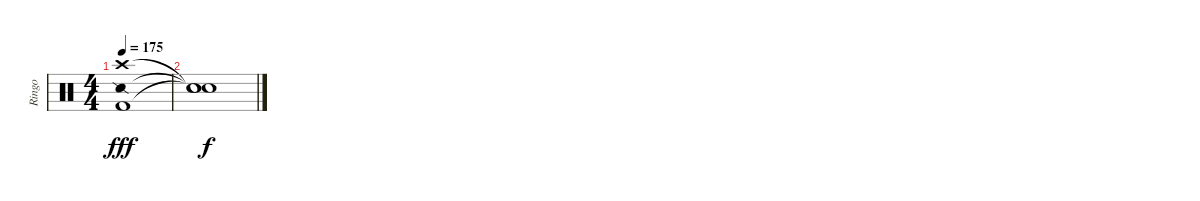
\track ("Ringo" "Ringo") {instrument percussion}
\staff {score}
\articulation defaults
\ts (4 4)
\tempo 175
\clef neutral
\ks c
("Crash high (hit)" "Snare (side stick) 2" "Kick (hit) 2").1{dy fff} |
("Snare (hit)"{t} "Snare (hit)"{t} "Snare (hit)"{t}).1{dy f}
